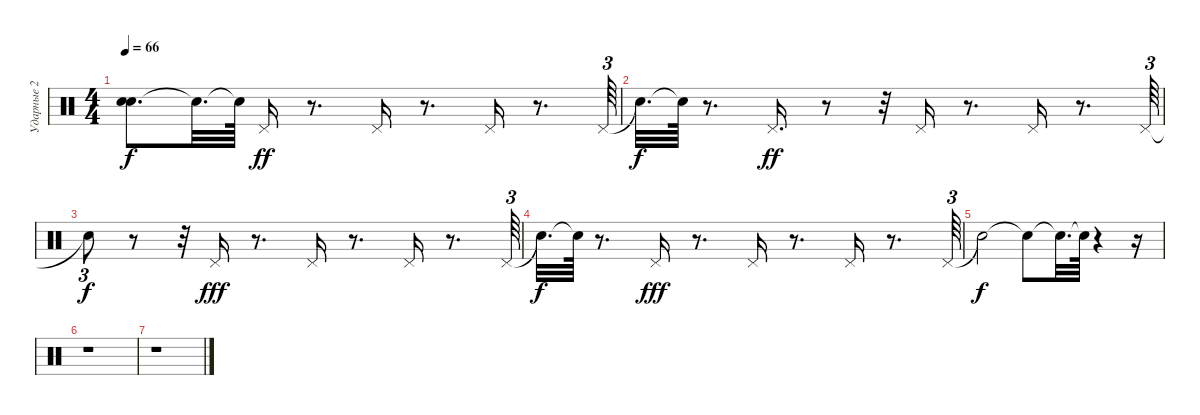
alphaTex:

\track ("Ударные 2" "Ударные 2") {instrument percussion}
\staff {score}
\articulation defaults
\ts (4 4)
\tempo 66
\clef neutral
\ks c
("Snare (hit)"{t} "Snare (hit)"{t}).8{d dy f} "Snare (hit)"{t}.32{d} "Snare (hit)"{t}.64 "Pedal Hi-Hat (hit)".16{dy ff} r.8{d} "Pedal Hi-Hat (hit)".16 r.8{d} "Pedal Hi-Hat (hit)".16 r.8{d} "Pedal Hi-Hat (hit)".64{tu (3 2)} |
"Snare (hit)"{t}.32{d dy f} "Snare (hit)"{t}.64 r.8{d} "Pedal Hi-Hat (hit)".16{d dy ff} r.8 r.32 "Pedal Hi-Hat (hit)".16 r.8{d} "Pedal Hi-Hat (hit)".16 r.8{d} "Pedal Hi-Hat (hit)".64{tu (3 2)} |
"Snare (hit)"{t}.8{tu (3 2) dy f} r.8 r.32 "Pedal Hi-Hat (hit)".16{dy fff} r.8{d} "Pedal Hi-Hat (hit)".16 r.8{d} "Pedal Hi-Hat (hit)".16 r.8{d} "Pedal Hi-Hat (hit)".64{tu (3 2)} |
"Snare (hit)"{t}.32{d dy f} "Snare (hit)"{t}.64 r.8{d} "Pedal Hi-Hat (hit)".16{dy fff} r.8{d} "Pedal Hi-Hat (hit)".16 r.8{d} "Pedal Hi-Hat (hit)".16 r.8{d} "Pedal Hi-Hat (hit)".64{tu (3 2)} |
"Snare (hit)"{t}.2{dy f} "Snare (hit)"{t}.8 "Snare (hit)"{t}.32{d} "Snare (hit)"{t}.64 r.4 r.16 |
r.1 |
r.1
